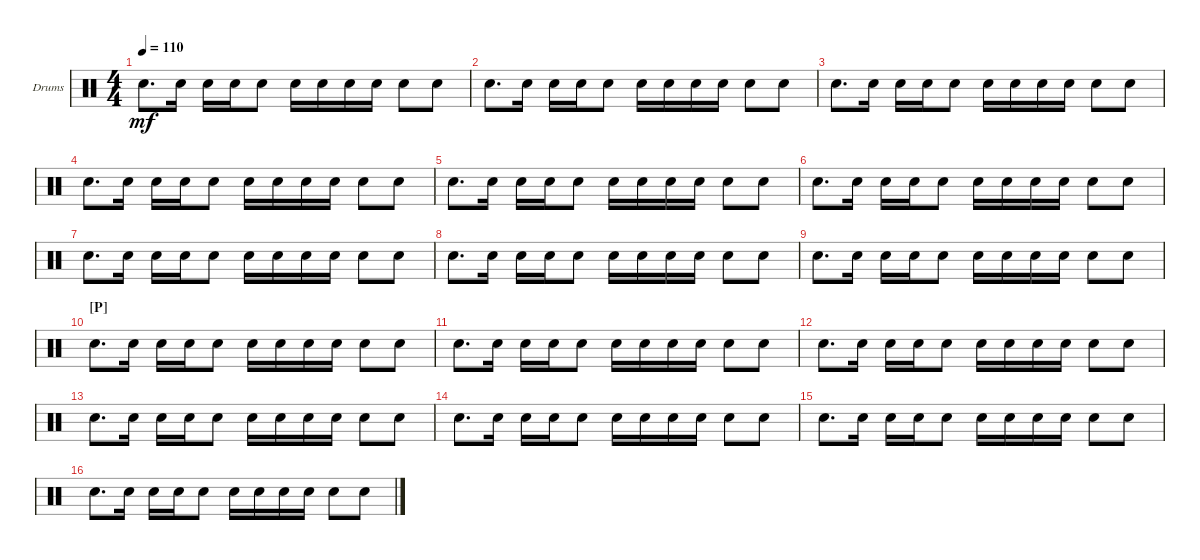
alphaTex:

\defaultSystemsLayout 4
\bracketExtendMode groupsimilarinstruments
\firstSystemTrackNameOrientation horizontal
\otherSystemsTrackNameOrientation horizontal
\track ("Drumkit" "Drums") {instrument percussion}
\staff {score}
\articulation defaults
\ts (4 4)
\tempo 110
\clef neutral
\ks c "Snare (hit) 2".8{d dy mf} "Snare (hit) 2".16 "Snare (hit) 2".16 "Snare (hit) 2".16 "Snare (hit) 2".8 "Snare (hit) 2".16 "Snare (hit) 2".16 "Snare (hit) 2".16 "Snare (hit) 2".16 "Snare (hit) 2".8 "Snare (hit) 2".8
|
"Snare (hit) 2".8{d} "Snare (hit) 2".16 "Snare (hit) 2".16 "Snare (hit) 2".16 "Snare (hit) 2".8 "Snare (hit) 2".16 "Snare (hit) 2".16 "Snare (hit) 2".16 "Snare (hit) 2".16 "Snare (hit) 2".8 "Snare (hit) 2".8 |
"Snare (hit) 2".8{d} "Snare (hit) 2".16 "Snare (hit) 2".16 "Snare (hit) 2".16 "Snare (hit) 2".8 "Snare (hit) 2".16 "Snare (hit) 2".16 "Snare (hit) 2".16 "Snare (hit) 2".16 "Snare (hit) 2".8 "Snare (hit) 2".8 |
"Snare (hit) 2".8{d} "Snare (hit) 2".16 "Snare (hit) 2".16 "Snare (hit) 2".16 "Snare (hit) 2".8 "Snare (hit) 2".16 "Snare (hit) 2".16 "Snare (hit) 2".16 "Snare (hit) 2".16 "Snare (hit) 2".8 "Snare (hit) 2".8 |
"Snare (hit) 2".8{d} "Snare (hit) 2".16 "Snare (hit) 2".16 "Snare (hit) 2".16 "Snare (hit) 2".8 "Snare (hit) 2".16 "Snare (hit) 2".16 "Snare (hit) 2".16 "Snare (hit) 2".16 "Snare (hit) 2".8 "Snare (hit) 2".8 |
"Snare (hit) 2".8{d} "Snare (hit) 2".16 "Snare (hit) 2".16 "Snare (hit) 2".16 "Snare (hit) 2".8 "Snare (hit) 2".16 "Snare (hit) 2".16 "Snare (hit) 2".16 "Snare (hit) 2".16 "Snare (hit) 2".8 "Snare (hit) 2".8 |
"Snare (hit) 2".8{d} "Snare (hit) 2".16 "Snare (hit) 2".16 "Snare (hit) 2".16 "Snare (hit) 2".8 "Snare (hit) 2".16 "Snare (hit) 2".16 "Snare (hit) 2".16 "Snare (hit) 2".16 "Snare (hit) 2".8 "Snare (hit) 2".8 |
"Snare (hit) 2".8{d} "Snare (hit) 2".16 "Snare (hit) 2".16 "Snare (hit) 2".16 "Snare (hit) 2".8 "Snare (hit) 2".16 "Snare (hit) 2".16 "Snare (hit) 2".16 "Snare (hit) 2".16 "Snare (hit) 2".8 "Snare (hit) 2".8 |
"Snare (hit) 2".8{d} "Snare (hit) 2".16 "Snare (hit) 2".16 "Snare (hit) 2".16 "Snare (hit) 2".8 "Snare (hit) 2".16 "Snare (hit) 2".16 "Snare (hit) 2".16 "Snare (hit) 2".16 "Snare (hit) 2".8 "Snare (hit) 2".8 |
\section ("P" "")
"Snare (hit) 2".8{d} "Snare (hit) 2".16 "Snare (hit) 2".16 "Snare (hit) 2".16 "Snare (hit) 2".8 "Snare (hit) 2".16 "Snare (hit) 2".16 "Snare (hit) 2".16 "Snare (hit) 2".16 "Snare (hit) 2".8 "Snare (hit) 2".8 |
"Snare (hit) 2".8{d} "Snare (hit) 2".16 "Snare (hit) 2".16 "Snare (hit) 2".16 "Snare (hit) 2".8 "Snare (hit) 2".16 "Snare (hit) 2".16 "Snare (hit) 2".16 "Snare (hit) 2".16 "Snare (hit) 2".8 "Snare (hit) 2".8 |
"Snare (hit) 2".8{d} "Snare (hit) 2".16 "Snare (hit) 2".16 "Snare (hit) 2".16 "Snare (hit) 2".8 "Snare (hit) 2".16 "Snare (hit) 2".16 "Snare (hit) 2".16 "Snare (hit) 2".16 "Snare (hit) 2".8 "Snare (hit) 2".8 |
"Snare (hit) 2".8{d} "Snare (hit) 2".16 "Snare (hit) 2".16 "Snare (hit) 2".16 "Snare (hit) 2".8 "Snare (hit) 2".16 "Snare (hit) 2".16 "Snare (hit) 2".16 "Snare (hit) 2".16 "Snare (hit) 2".8 "Snare (hit) 2".8 |
"Snare (hit) 2".8{d} "Snare (hit) 2".16 "Snare (hit) 2".16 "Snare (hit) 2".16 "Snare (hit) 2".8 "Snare (hit) 2".16 "Snare (hit) 2".16 "Snare (hit) 2".16 "Snare (hit) 2".16 "Snare (hit) 2".8 "Snare (hit) 2".8 |
"Snare (hit) 2".8{d} "Snare (hit) 2".16 "Snare (hit) 2".16 "Snare (hit) 2".16 "Snare (hit) 2".8 "Snare (hit) 2".16 "Snare (hit) 2".16 "Snare (hit) 2".16 "Snare (hit) 2".16 "Snare (hit) 2".8 "Snare (hit) 2".8 |
"Snare (hit) 2".8{d} "Snare (hit) 2".16 "Snare (hit) 2".16 "Snare (hit) 2".16 "Snare (hit) 2".8 "Snare (hit) 2".16 "Snare (hit) 2".16 "Snare (hit) 2".16 "Snare (hit) 2".16 "Snare (hit) 2".8 "Snare (hit) 2".8
